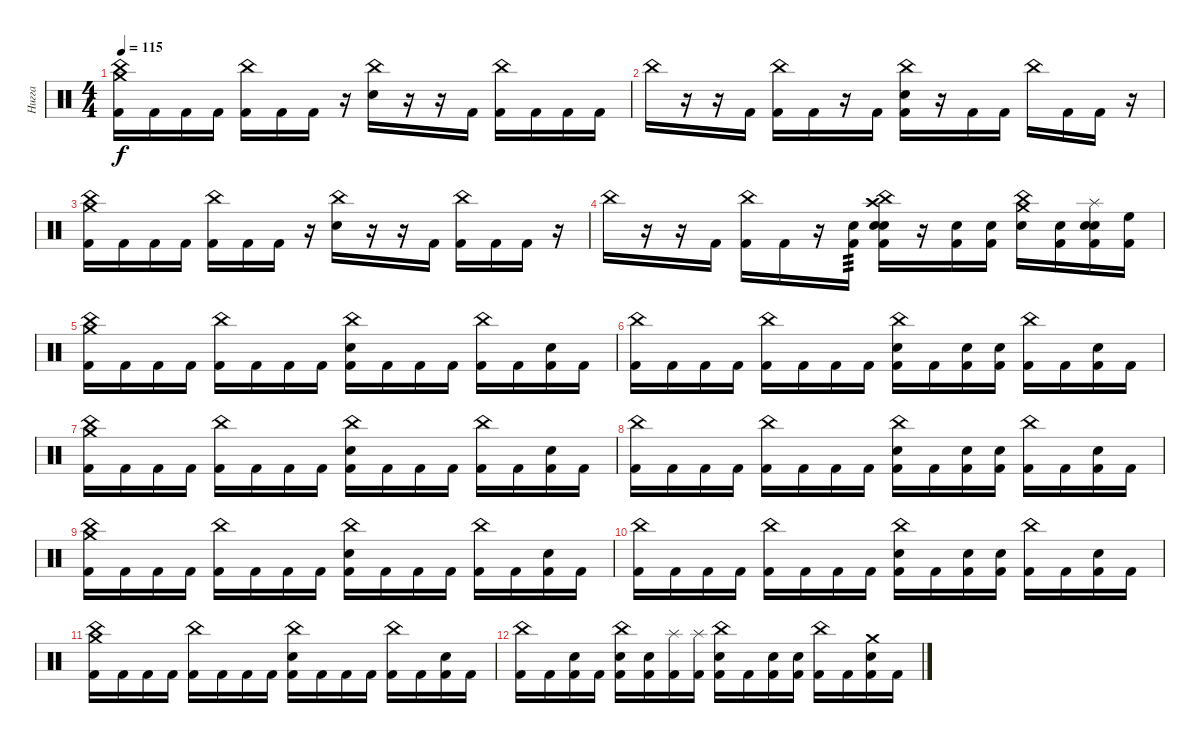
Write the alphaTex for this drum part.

\track ("Нигга" "Нигга") {instrument percussion}
\staff
\articulation defaults
\ts (4 4)
\tempo 115
\clef neutral
\ks c
("China (hit)" "Crash medium (hit)" "Kick (hit) 2").16{dy f} "Kick (hit) 2".16 "Kick (hit) 2".16 "Kick (hit) 2".16 ("China (hit)" "Kick (hit) 2").16 "Kick (hit) 2".16 "Kick (hit) 2".16 r.16 ("China (hit)" "Electric Snare (hit)").16 r.16 r.16 "Kick (hit) 2".16 ("China (hit)" "Kick (hit) 2").16 "Kick (hit) 2".16 "Kick (hit) 2".16 "Kick (hit) 2".16 |
"China (hit)".16 r.16 r.16 "Kick (hit) 2".16 ("China (hit)" "Kick (hit) 2").16 "Kick (hit) 2".16 r.16 "Kick (hit) 2".16 ("China (hit)" "Electric Snare (hit)" "Kick (hit) 2").16 r.16 "Kick (hit) 2".16 "Kick (hit) 2".16 "China (hit)".16 "Kick (hit) 2".16 "Kick (hit) 2".16 r.16 |
("China (hit)" "Crash medium (hit)" "Kick (hit) 2").16 "Kick (hit) 2".16 "Kick (hit) 2".16 "Kick (hit) 2".16 ("China (hit)" "Kick (hit) 2").16 "Kick (hit) 2".16 "Kick (hit) 2".16 r.16 ("China (hit)" "Electric Snare (hit)").16 r.16 r.16 "Kick (hit) 2".16 ("China (hit)" "Kick (hit) 2").16 "Kick (hit) 2".16 "Kick (hit) 2".16 r.16 |
"China (hit)".16 r.16 r.16 "Kick (hit) 2".16 ("China (hit)" "Kick (hit) 2").16 "Kick (hit) 2".16 r.16 ("Snare (hit) 2" "Kick (hit) 2").16{tp 3} ("China (hit)" "Crash high (hit)" "Electric Snare (hit)" "Snare (hit) 2" "Kick (hit) 2").16 r.16 ("Snare (hit) 2" "Kick (hit) 2").16 ("Snare (hit) 2" "Kick (hit) 2").16 ("China (hit)" "Crash medium (hit)" "Electric Snare (hit)").16 ("Snare (hit) 2" "Kick (hit) 2").16 ("Splash (hit)" "Electric Snare (hit)" "Snare (hit) 2" "Kick (hit) 2").16 ("High Floor Tom (hit)" "Kick (hit) 2").16 |
("China (hit)" "Crash medium (hit)" "Kick (hit) 2").16 "Kick (hit) 2".16 "Kick (hit) 2".16 "Kick (hit) 2".16 ("China (hit)" "Kick (hit) 2").16 "Kick (hit) 2".16 "Kick (hit) 2".16 "Kick (hit) 2".16 ("China (hit)" "Electric Snare (hit)" "Kick (hit) 2").16 "Kick (hit) 2".16 "Kick (hit) 2".16 "Kick (hit) 2".16 ("China (hit)" "Kick (hit) 2").16 "Kick (hit) 2".16 ("Electric Snare (hit)" "Kick (hit) 2").16 "Kick (hit) 2".16 |
("China (hit)" "Kick (hit) 2").16 "Kick (hit) 2".16 "Kick (hit) 2".16 "Kick (hit) 2".16 ("China (hit)" "Kick (hit) 2").16 "Kick (hit) 2".16 "Kick (hit) 2".16 "Kick (hit) 2".16 ("China (hit)" "Electric Snare (hit)" "Kick (hit) 2").16 "Kick (hit) 2".16 ("Electric Snare (hit)" "Kick (hit) 2").16 ("Electric Snare (hit)" "Kick (hit) 2").16 ("China (hit)" "Kick (hit) 2").16 "Kick (hit) 2".16 ("Electric Snare (hit)" "Kick (hit) 2").16 "Kick (hit) 2".16 |
("China (hit)" "Crash medium (hit)" "Kick (hit) 2").16 "Kick (hit) 2".16 "Kick (hit) 2".16 "Kick (hit) 2".16 ("China (hit)" "Kick (hit) 2").16 "Kick (hit) 2".16 "Kick (hit) 2".16 "Kick (hit) 2".16 ("China (hit)" "Electric Snare (hit)" "Kick (hit) 2").16 "Kick (hit) 2".16 "Kick (hit) 2".16 "Kick (hit) 2".16 ("China (hit)" "Kick (hit) 2").16 "Kick (hit) 2".16 ("Electric Snare (hit)" "Kick (hit) 2").16 "Kick (hit) 2".16 |
("China (hit)" "Kick (hit) 2").16 "Kick (hit) 2".16 "Kick (hit) 2".16 "Kick (hit) 2".16 ("China (hit)" "Kick (hit) 2").16 "Kick (hit) 2".16 "Kick (hit) 2".16 "Kick (hit) 2".16 ("China (hit)" "Electric Snare (hit)" "Kick (hit) 2").16 "Kick (hit) 2".16 ("Electric Snare (hit)" "Kick (hit) 2").16 ("Electric Snare (hit)" "Kick (hit) 2").16 ("China (hit)" "Kick (hit) 2").16 "Kick (hit) 2".16 ("Electric Snare (hit)" "Kick (hit) 2").16 "Kick (hit) 2".16 |
("China (hit)" "Crash medium (hit)" "Kick (hit) 2").16 "Kick (hit) 2".16 "Kick (hit) 2".16 "Kick (hit) 2".16 ("China (hit)" "Kick (hit) 2").16 "Kick (hit) 2".16 "Kick (hit) 2".16 "Kick (hit) 2".16 ("China (hit)" "Electric Snare (hit)" "Kick (hit) 2").16 "Kick (hit) 2".16 "Kick (hit) 2".16 "Kick (hit) 2".16 ("China (hit)" "Kick (hit) 2").16 "Kick (hit) 2".16 ("Electric Snare (hit)" "Kick (hit) 2").16 "Kick (hit) 2".16 |
("China (hit)" "Kick (hit) 2").16 "Kick (hit) 2".16 "Kick (hit) 2".16 "Kick (hit) 2".16 ("China (hit)" "Kick (hit) 2").16 "Kick (hit) 2".16 "Kick (hit) 2".16 "Kick (hit) 2".16 ("China (hit)" "Electric Snare (hit)" "Kick (hit) 2").16 "Kick (hit) 2".16 ("Electric Snare (hit)" "Kick (hit) 2").16 ("Electric Snare (hit)" "Kick (hit) 2").16 ("China (hit)" "Kick (hit) 2").16 "Kick (hit) 2".16 ("Electric Snare (hit)" "Kick (hit) 2").16 "Kick (hit) 2".16 |
("China (hit)" "Crash medium (hit)" "Kick (hit) 2").16 "Kick (hit) 2".16 "Kick (hit) 2".16 "Kick (hit) 2".16 ("China (hit)" "Kick (hit) 2").16 "Kick (hit) 2".16 "Kick (hit) 2".16 "Kick (hit) 2".16 ("China (hit)" "Electric Snare (hit)" "Kick (hit) 2").16 "Kick (hit) 2".16 "Kick (hit) 2".16 "Kick (hit) 2".16 ("China (hit)" "Kick (hit) 2").16 "Kick (hit) 2".16 ("Electric Snare (hit)" "Kick (hit) 2").16 "Kick (hit) 2".16 |
("China (hit)" "Kick (hit) 2").16 "Kick (hit) 2".16 ("Electric Snare (hit)" "Kick (hit) 2").16 "Kick (hit) 2".16 ("China (hit)" "Electric Snare (hit)" "Kick (hit) 2").16 ("Electric Snare (hit)" "Kick (hit) 2").16 ("Splash (hit)" "Kick (hit) 2").16 ("Splash (hit)" "Kick (hit) 2").16 ("China (hit)" "Electric Snare (hit)" "Kick (hit) 2").16 "Kick (hit) 2".16 ("Electric Snare (hit)" "Kick (hit) 2").16 ("Electric Snare (hit)" "Kick (hit) 2").16 ("China (hit)" "Kick (hit) 2").16 "Kick (hit) 2".16 ("Crash medium (hit)" "Electric Snare (hit)" "Kick (hit) 2").16 "Kick (hit) 2".16
